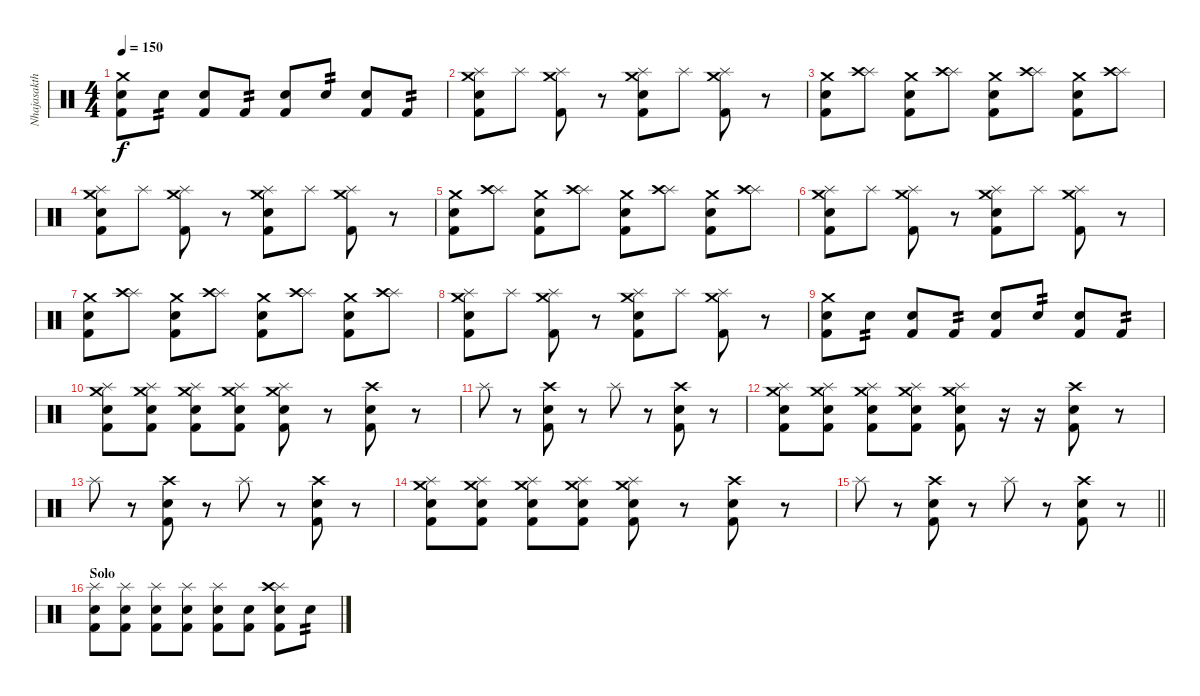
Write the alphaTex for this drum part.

\track ("Nhajasakthee" "Nhajasakth") {instrument percussion}
\staff {score}
\articulation defaults
\ts (4 4)
\tempo 150
\clef neutral
\ks c
("Crash medium (hit)" "Kick (hit) 2" "Electric Snare (hit)").8{dy f} "Electric Snare (hit)".8{tp 2} ("Kick (hit) 2" "Electric Snare (hit)").8 "Kick (hit) 2".8{tp 2} ("Kick (hit) 2" "Electric Snare (hit)").8 "Electric Snare (hit)".8{tp 2} ("Kick (hit) 2" "Electric Snare (hit)").8 "Kick (hit) 2".8{tp 2} |
("Splash (hit)" "Crash medium (hit)" "Kick (hit) 2" "Electric Snare (hit)").8 "Splash (hit)".8 ("Splash (hit)" "Crash medium (hit)" "Kick (hit) 2").8 r.8 ("Splash (hit)" "Crash medium (hit)" "Kick (hit) 2" "Electric Snare (hit)").8 "Splash (hit)".8 ("Splash (hit)" "Crash medium (hit)" "Kick (hit) 2").8 r.8 |
("Crash medium (hit)" "Kick (hit) 2" "Electric Snare (hit)").8 ("Splash (hit)" "Crash high (hit)").8 ("Crash medium (hit)" "Kick (hit) 2" "Electric Snare (hit)").8 ("Splash (hit)" "Crash high (hit)").8 ("Crash medium (hit)" "Kick (hit) 2" "Electric Snare (hit)").8 ("Splash (hit)" "Crash high (hit)").8 ("Crash medium (hit)" "Kick (hit) 2" "Electric Snare (hit)").8 ("Splash (hit)" "Crash high (hit)").8 |
("Splash (hit)" "Crash medium (hit)" "Kick (hit) 2" "Electric Snare (hit)").8 "Splash (hit)".8 ("Splash (hit)" "Crash medium (hit)" "Kick (hit) 2").8 r.8 ("Splash (hit)" "Crash medium (hit)" "Kick (hit) 2" "Electric Snare (hit)").8 "Splash (hit)".8 ("Splash (hit)" "Crash medium (hit)" "Kick (hit) 2").8 r.8 |
("Crash medium (hit)" "Kick (hit) 2" "Electric Snare (hit)").8 ("Splash (hit)" "Crash high (hit)").8 ("Crash medium (hit)" "Kick (hit) 2" "Electric Snare (hit)").8 ("Splash (hit)" "Crash high (hit)").8 ("Crash medium (hit)" "Kick (hit) 2" "Electric Snare (hit)").8 ("Splash (hit)" "Crash high (hit)").8 ("Crash medium (hit)" "Kick (hit) 2" "Electric Snare (hit)").8 ("Splash (hit)" "Crash high (hit)").8 |
("Splash (hit)" "Crash medium (hit)" "Kick (hit) 2" "Electric Snare (hit)").8 "Splash (hit)".8 ("Splash (hit)" "Crash medium (hit)" "Kick (hit) 2").8 r.8 ("Splash (hit)" "Crash medium (hit)" "Kick (hit) 2" "Electric Snare (hit)").8 "Splash (hit)".8 ("Splash (hit)" "Crash medium (hit)" "Kick (hit) 2").8 r.8 |
("Crash medium (hit)" "Kick (hit) 2" "Electric Snare (hit)").8 ("Splash (hit)" "Crash high (hit)").8 ("Crash medium (hit)" "Kick (hit) 2" "Electric Snare (hit)").8 ("Splash (hit)" "Crash high (hit)").8 ("Crash medium (hit)" "Kick (hit) 2" "Electric Snare (hit)").8 ("Splash (hit)" "Crash high (hit)").8 ("Crash medium (hit)" "Kick (hit) 2" "Electric Snare (hit)").8 ("Splash (hit)" "Crash high (hit)").8 |
("Splash (hit)" "Crash medium (hit)" "Kick (hit) 2" "Electric Snare (hit)").8 "Splash (hit)".8 ("Splash (hit)" "Crash medium (hit)" "Kick (hit) 2").8 r.8 ("Splash (hit)" "Crash medium (hit)" "Kick (hit) 2" "Electric Snare (hit)").8 "Splash (hit)".8 ("Splash (hit)" "Crash medium (hit)" "Kick (hit) 2").8 r.8 |
("Crash medium (hit)" "Kick (hit) 2" "Electric Snare (hit)").8 "Electric Snare (hit)".8{tp 2} ("Kick (hit) 2" "Electric Snare (hit)").8 "Kick (hit) 2".8{tp 2} ("Kick (hit) 2" "Electric Snare (hit)").8 "Electric Snare (hit)".8{tp 2} ("Kick (hit) 2" "Electric Snare (hit)").8 "Kick (hit) 2".8{tp 2} |
("Splash (hit)" "Crash medium (hit)" "Kick (hit) 2" "Electric Snare (hit)").8 ("Splash (hit)" "Crash medium (hit)" "Kick (hit) 2" "Electric Snare (hit)").8 ("Splash (hit)" "Crash medium (hit)" "Kick (hit) 2" "Electric Snare (hit)").8 ("Splash (hit)" "Crash medium (hit)" "Kick (hit) 2" "Electric Snare (hit)").8 ("Splash (hit)" "Crash medium (hit)" "Kick (hit) 2" "Electric Snare (hit)").8 r.8 ("Crash high (hit)" "Kick (hit) 2" "Electric Snare (hit)").8 r.8 |
"Splash (hit)".8 r.8 ("Crash high (hit)" "Kick (hit) 2" "Electric Snare (hit)").8 r.8 "Splash (hit)".8 r.8 ("Crash high (hit)" "Kick (hit) 2" "Electric Snare (hit)").8 r.8 |
("Splash (hit)" "Crash medium (hit)" "Kick (hit) 2" "Electric Snare (hit)").8 ("Splash (hit)" "Crash medium (hit)" "Kick (hit) 2" "Electric Snare (hit)").8 ("Splash (hit)" "Crash medium (hit)" "Kick (hit) 2" "Electric Snare (hit)").8 ("Splash (hit)" "Crash medium (hit)" "Kick (hit) 2" "Electric Snare (hit)").8 ("Splash (hit)" "Crash medium (hit)" "Kick (hit) 2" "Electric Snare (hit)").8 r.16 r.16 ("Crash high (hit)" "Kick (hit) 2" "Electric Snare (hit)").8 r.8 |
"Splash (hit)".8 r.8 ("Crash high (hit)" "Kick (hit) 2" "Electric Snare (hit)").8 r.8 "Splash (hit)".8 r.8 ("Crash high (hit)" "Kick (hit) 2" "Electric Snare (hit)").8 r.8 |
("Splash (hit)" "Crash medium (hit)" "Kick (hit) 2" "Electric Snare (hit)").8 ("Splash (hit)" "Crash medium (hit)" "Kick (hit) 2" "Electric Snare (hit)").8 ("Splash (hit)" "Crash medium (hit)" "Kick (hit) 2" "Electric Snare (hit)").8 ("Splash (hit)" "Crash medium (hit)" "Kick (hit) 2" "Electric Snare (hit)").8 ("Splash (hit)" "Crash medium (hit)" "Kick (hit) 2" "Electric Snare (hit)").8 r.8 ("Crash high (hit)" "Kick (hit) 2" "Electric Snare (hit)").8 r.8 |
\barLineRight lightlight "Splash (hit)".8
r.8 ("Crash high (hit)" "Kick (hit) 2" "Electric Snare (hit)").8 r.8 "Splash (hit)".8 r.8 ("Crash high (hit)" "Kick (hit) 2" "Electric Snare (hit)").8 r.8 |
\section ("" "Solo")
("Splash (hit)" "Kick (hit) 2" "Electric Snare (hit)").8 ("Splash (hit)" "Kick (hit) 2" "Electric Snare (hit)").8 ("Splash (hit)" "Kick (hit) 2" "Electric Snare (hit)").8 ("Splash (hit)" "Kick (hit) 2" "Electric Snare (hit)").8 ("Splash (hit)" "Kick (hit) 2" "Electric Snare (hit)").8 ("Kick (hit) 2" "Electric Snare (hit)").8 ("Splash (hit)" "Crash high (hit)" "Kick (hit) 2" "Electric Snare (hit)").8 "Electric Snare (hit)".8{tp 2}
